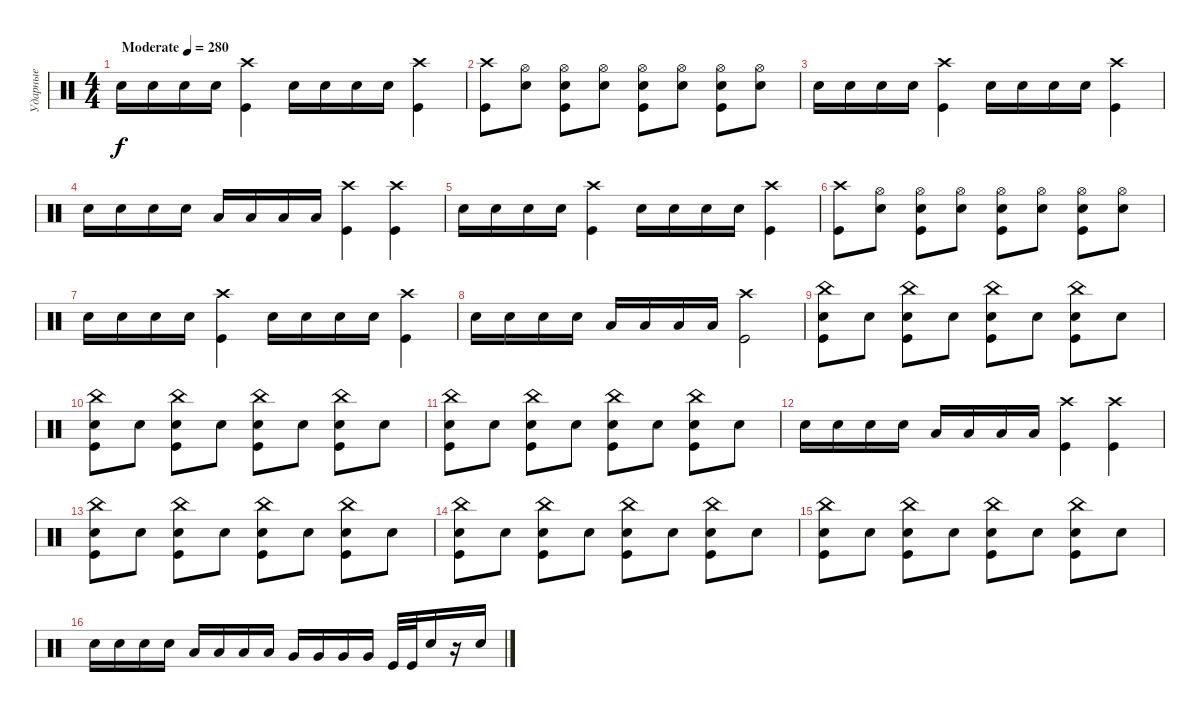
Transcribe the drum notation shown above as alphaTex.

\track ("Ударные" "Ударные") {instrument percussion}
\staff {score}
\articulation defaults
\ts (4 4)
\tempo (280 "Moderate")
\clef neutral
\ks c "Snare (hit) 2".16{dy f} "Snare (hit) 2".16 "Snare (hit) 2".16 "Snare (hit) 2".16
("Crash high (hit)" "Kick (hit)").4 "Snare (hit) 2".16 "Snare (hit) 2".16 "Snare (hit) 2".16 "Snare (hit) 2".16 ("Crash high (hit)" "Kick (hit)").4 |
("Crash high (hit)" "Kick (hit)").8 ("Hi-Hat (open)" "Snare (hit) 2").8 ("Kick (hit)" "Hi-Hat (open)" "Snare (hit) 2").8 ("Hi-Hat (open)" "Snare (hit) 2").8 ("Kick (hit)" "Hi-Hat (open)" "Snare (hit) 2").8 ("Hi-Hat (open)" "Snare (hit) 2").8 ("Kick (hit)" "Hi-Hat (open)" "Snare (hit) 2").8 ("Hi-Hat (open)" "Snare (hit) 2").8 |
"Snare (hit) 2".16 "Snare (hit) 2".16 "Snare (hit) 2".16 "Snare (hit) 2".16 ("Crash high (hit)" "Kick (hit)").4 "Snare (hit) 2".16 "Snare (hit) 2".16 "Snare (hit) 2".16 "Snare (hit) 2".16 ("Crash high (hit)" "Kick (hit)").4 |
"Snare (hit) 2".16 "Snare (hit) 2".16 "Snare (hit) 2".16 "Snare (hit) 2".16 "Low Tom (hit)".16 "Low Tom (hit)".16 "Low Tom (hit)".16 "Low Tom (hit)".16 ("Crash high (hit)" "Kick (hit)").4 ("Crash high (hit)" "Kick (hit)").4 |
"Snare (hit) 2".16 "Snare (hit) 2".16 "Snare (hit) 2".16 "Snare (hit) 2".16 ("Crash high (hit)" "Kick (hit)").4 "Snare (hit) 2".16 "Snare (hit) 2".16 "Snare (hit) 2".16 "Snare (hit) 2".16 ("Crash high (hit)" "Kick (hit)").4 |
("Crash high (hit)" "Kick (hit)").8 ("Hi-Hat (open)" "Snare (hit) 2").8 ("Kick (hit)" "Hi-Hat (open)" "Snare (hit) 2").8 ("Hi-Hat (open)" "Snare (hit) 2").8 ("Kick (hit)" "Hi-Hat (open)" "Snare (hit) 2").8 ("Hi-Hat (open)" "Snare (hit) 2").8 ("Kick (hit)" "Hi-Hat (open)" "Snare (hit) 2").8 ("Hi-Hat (open)" "Snare (hit) 2").8 |
"Snare (hit) 2".16 "Snare (hit) 2".16 "Snare (hit) 2".16 "Snare (hit) 2".16 ("Crash high (hit)" "Kick (hit)").4 "Snare (hit) 2".16 "Snare (hit) 2".16 "Snare (hit) 2".16 "Snare (hit) 2".16 ("Crash high (hit)" "Kick (hit)").4 |
"Snare (hit) 2".16 "Snare (hit) 2".16 "Snare (hit) 2".16 "Snare (hit) 2".16 "Low Tom (hit)".16 "Low Tom (hit)".16 "Low Tom (hit)".16 "Low Tom (hit)".16 ("Crash high (hit)" "Kick (hit)").2 |
("Kick (hit)" "China (hit)" "Snare (hit) 2").8 "Snare (hit) 2".8 ("Kick (hit)" "China (hit)" "Snare (hit) 2").8 "Snare (hit) 2".8 ("Kick (hit)" "China (hit)" "Snare (hit) 2").8 "Snare (hit) 2".8 ("Kick (hit)" "China (hit)" "Snare (hit) 2").8 "Snare (hit) 2".8 |
("Kick (hit)" "China (hit)" "Snare (hit) 2").8 "Snare (hit) 2".8 ("Kick (hit)" "China (hit)" "Snare (hit) 2").8 "Snare (hit) 2".8 ("Kick (hit)" "China (hit)" "Snare (hit) 2").8 "Snare (hit) 2".8 ("Kick (hit)" "China (hit)" "Snare (hit) 2").8 "Snare (hit) 2".8 |
("Kick (hit)" "China (hit)" "Snare (hit) 2").8 "Snare (hit) 2".8 ("Kick (hit)" "China (hit)" "Snare (hit) 2").8 "Snare (hit) 2".8 ("Kick (hit)" "China (hit)" "Snare (hit) 2").8 "Snare (hit) 2".8 ("Kick (hit)" "China (hit)" "Snare (hit) 2").8 "Snare (hit) 2".8 |
"Snare (hit) 2".16 "Snare (hit) 2".16 "Snare (hit) 2".16 "Snare (hit) 2".16 "Low Tom (hit)".16 "Low Tom (hit)".16 "Low Tom (hit)".16 "Low Tom (hit)".16 ("Crash high (hit)" "Kick (hit)").4 ("Crash high (hit)" "Kick (hit)").4 |
("Kick (hit)" "China (hit)" "Snare (hit) 2").8 "Snare (hit) 2".8 ("Kick (hit)" "China (hit)" "Snare (hit) 2").8 "Snare (hit) 2".8 ("Kick (hit)" "China (hit)" "Snare (hit) 2").8 "Snare (hit) 2".8 ("Kick (hit)" "China (hit)" "Snare (hit) 2").8 "Snare (hit) 2".8 |
("Kick (hit)" "China (hit)" "Snare (hit) 2").8 "Snare (hit) 2".8 ("Kick (hit)" "China (hit)" "Snare (hit) 2").8 "Snare (hit) 2".8 ("Kick (hit)" "China (hit)" "Snare (hit) 2").8 "Snare (hit) 2".8 ("Kick (hit)" "China (hit)" "Snare (hit) 2").8 "Snare (hit) 2".8 |
("Kick (hit)" "China (hit)" "Snare (hit) 2").8 "Snare (hit) 2".8 ("Kick (hit)" "China (hit)" "Snare (hit) 2").8 "Snare (hit) 2".8 ("Kick (hit)" "China (hit)" "Snare (hit) 2").8 "Snare (hit) 2".8 ("Kick (hit)" "China (hit)" "Snare (hit) 2").8 "Snare (hit) 2".8 |
"Snare (hit) 2".16 "Snare (hit) 2".16 "Snare (hit) 2".16 "Snare (hit) 2".16 "Low Tom (hit)".16 "Low Tom (hit)".16 "Low Tom (hit)".16 "Low Tom (hit)".16 "Very Low Tom (hit)".16 "Very Low Tom (hit)".16 "Very Low Tom (hit)".16 "Very Low Tom (hit)".16 "Kick (hit)".32 "Kick (hit)".32 "Snare (hit) 2".16 r.16 "Snare (hit) 2".16
